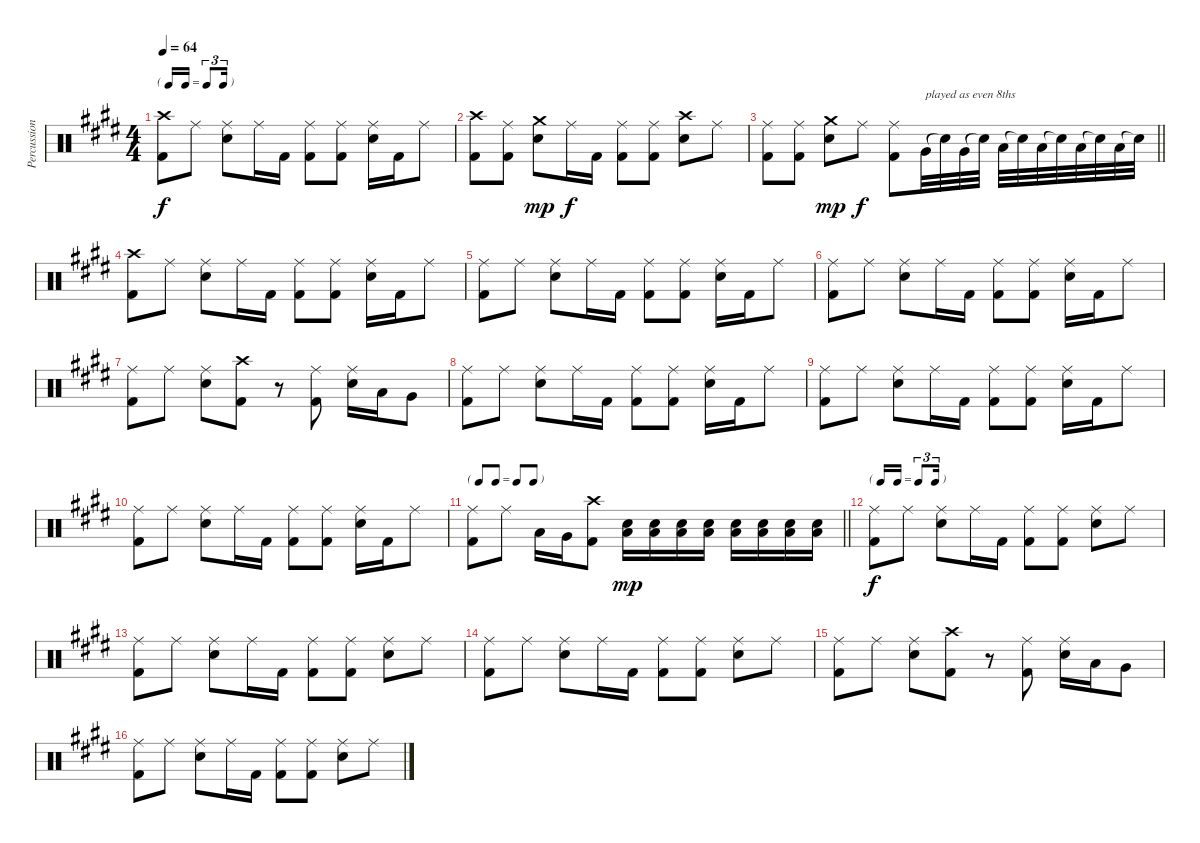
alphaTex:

\track ("Percussion" "Percussion") {instrument percussion}
\staff {score}
\articulation defaults
\ts (4 4)
\tf triplet16th
\tempo 64
\clef neutral
\ks e
("Crash high (hit)" "Kick (hit) 2").8{dy f} "Ride (middle)".8 ("Ride (middle)" "Snare (hit) 2").8 "Ride (middle)".16 "Kick (hit) 2".16 ("Ride (middle)" "Kick (hit) 2").8 ("Ride (middle)" "Kick (hit) 2").8 ("Ride (middle)" "Snare (hit) 2").16 "Kick (hit) 2".16 "Ride (middle)".8 |
("Crash high (hit)" "Kick (hit) 2").8 ("Ride (middle)" "Kick (hit) 2").8 ("Crash medium (hit)" "Snare (hit) 2").8{dy mp} "Ride (middle)".16{dy f} "Kick (hit) 2".16 ("Ride (middle)" "Kick (hit) 2").8 ("Ride (middle)" "Kick (hit) 2").8 ("Crash high (hit)" "Snare (hit) 2").8 "Ride (middle)".8 |
\barLineRight lightlight
("Ride (middle)" "Kick (hit) 2").8 ("Ride (middle)" "Kick (hit) 2").8 ("Crash medium (hit)" "Snare (hit) 2").8{dy mp} "Ride (middle)".8{dy f} ("Ride (middle)" "Kick (hit) 2").8 "Very Low Tom (hit)".32{txt "played as even 8ths"} "Snare (hit)"{t}.32 "Very Low Tom (hit)".32 "Snare (hit)"{t}.32 "Low Tom (hit)".32 "Snare (hit)"{t}.32 "Low Tom (hit)".32 "Snare (hit)"{t}.32 "Low Floor Tom (hit)".32 "Snare (hit)"{t}.32 "Low Floor Tom (hit)".32 "Snare (hit)"{t}.32 |
("Crash high (hit)" "Kick (hit) 2").8 "Ride (middle)".8 ("Ride (middle)" "Snare (hit) 2").8 "Ride (middle)".16 "Kick (hit) 2".16 ("Ride (middle)" "Kick (hit) 2").8 ("Ride (middle)" "Kick (hit) 2").8 ("Ride (middle)" "Snare (hit) 2").16 "Kick (hit) 2".16 "Ride (middle)".8 |
("Ride (middle)" "Kick (hit) 2").8 "Ride (middle)".8 ("Ride (middle)" "Snare (hit) 2").8 "Ride (middle)".16 "Kick (hit) 2".16 ("Ride (middle)" "Kick (hit) 2").8 ("Ride (middle)" "Kick (hit) 2").8 ("Ride (middle)" "Snare (hit) 2").16 "Kick (hit) 2".16 "Ride (middle)".8 |
("Ride (middle)" "Kick (hit) 2").8 "Ride (middle)".8 ("Ride (middle)" "Snare (hit) 2").8 "Ride (middle)".16 "Kick (hit) 2".16 ("Ride (middle)" "Kick (hit) 2").8 ("Ride (middle)" "Kick (hit) 2").8 ("Ride (middle)" "Snare (hit) 2").16 "Kick (hit) 2".16 "Ride (middle)".8 |
("Ride (middle)" "Kick (hit) 2").8 "Ride (middle)".8 ("Ride (middle)" "Snare (hit) 2").8 ("Crash high (hit)" "Kick (hit) 2").8 r.8 ("Ride (middle)" "Kick (hit) 2").8 ("Ride (middle)" "Snare (hit) 2").16 "Low Tom (hit)".16 "Very Low Tom (hit)".8 |
("Ride (middle)" "Kick (hit) 2").8 "Ride (middle)".8 ("Ride (middle)" "Snare (hit) 2").8 "Ride (middle)".16 "Kick (hit) 2".16 ("Ride (middle)" "Kick (hit) 2").8 ("Ride (middle)" "Kick (hit) 2").8 ("Ride (middle)" "Snare (hit) 2").16 "Kick (hit) 2".16 "Ride (middle)".8 |
("Ride (middle)" "Kick (hit) 2").8 "Ride (middle)".8 ("Ride (middle)" "Snare (hit) 2").8 "Ride (middle)".16 "Kick (hit) 2".16 ("Ride (middle)" "Kick (hit) 2").8 ("Ride (middle)" "Kick (hit) 2").8 ("Ride (middle)" "Snare (hit) 2").16 "Kick (hit) 2".16 "Ride (middle)".8 |
("Ride (middle)" "Kick (hit) 2").8 "Ride (middle)".8 ("Ride (middle)" "Snare (hit) 2").8 "Ride (middle)".16 "Kick (hit) 2".16 ("Ride (middle)" "Kick (hit) 2").8 ("Ride (middle)" "Kick (hit) 2").8 ("Ride (middle)" "Snare (hit) 2").16 "Kick (hit) 2".16 "Ride (middle)".8 |
\tf none
\barLineRight lightlight
("Ride (middle)" "Kick (hit) 2").8 "Ride (middle)".8 "Low Tom (hit)".16 "Very Low Tom (hit)".16 ("Crash high (hit)" "Kick (hit) 2").8 ("Snare (hit) 2" "Low Floor Tom (hit)").16{dy mp} ("Snare (hit) 2" "Low Floor Tom (hit)").16 ("Snare (hit) 2" "Low Floor Tom (hit)").16 ("Snare (hit) 2" "Low Floor Tom (hit)").16 ("Snare (hit) 2" "Low Floor Tom (hit)").16 ("Snare (hit) 2" "Low Floor Tom (hit)").16 ("Snare (hit) 2" "Low Floor Tom (hit)").16 ("Snare (hit) 2" "Low Floor Tom (hit)").16 |
\tf triplet16th
("Ride (middle)" "Kick (hit) 2").8{dy f} "Ride (middle)".8 ("Ride (middle)" "Snare (hit) 2").8 "Ride (middle)".16 "Kick (hit) 2".16 ("Ride (middle)" "Kick (hit) 2").8 ("Ride (middle)" "Kick (hit) 2").8 ("Ride (middle)" "Snare (hit) 2").8 "Ride (middle)".8 |
("Ride (middle)" "Kick (hit) 2").8 "Ride (middle)".8 ("Ride (middle)" "Snare (hit) 2").8 "Ride (middle)".16 "Kick (hit) 2".16 ("Ride (middle)" "Kick (hit) 2").8 ("Ride (middle)" "Kick (hit) 2").8 ("Ride (middle)" "Snare (hit) 2").8 "Ride (middle)".8 |
("Ride (middle)" "Kick (hit) 2").8 "Ride (middle)".8 ("Ride (middle)" "Snare (hit) 2").8 "Ride (middle)".16 "Kick (hit) 2".16 ("Ride (middle)" "Kick (hit) 2").8 ("Ride (middle)" "Kick (hit) 2").8 ("Ride (middle)" "Snare (hit) 2").8 "Ride (middle)".8 |
("Ride (middle)" "Kick (hit) 2").8 "Ride (middle)".8 ("Ride (middle)" "Snare (hit) 2").8 ("Crash high (hit)" "Kick (hit) 2").8 r.8 ("Ride (middle)" "Kick (hit) 2").8 ("Ride (middle)" "Snare (hit) 2").16 "Low Tom (hit)".16 "Very Low Tom (hit)".8 |
("Ride (middle)" "Kick (hit) 2").8 "Ride (middle)".8 ("Ride (middle)" "Snare (hit) 2").8 "Ride (middle)".16 "Kick (hit) 2".16 ("Ride (middle)" "Kick (hit) 2").8 ("Ride (middle)" "Kick (hit) 2").8 ("Ride (middle)" "Snare (hit) 2").8 "Ride (middle)".8
